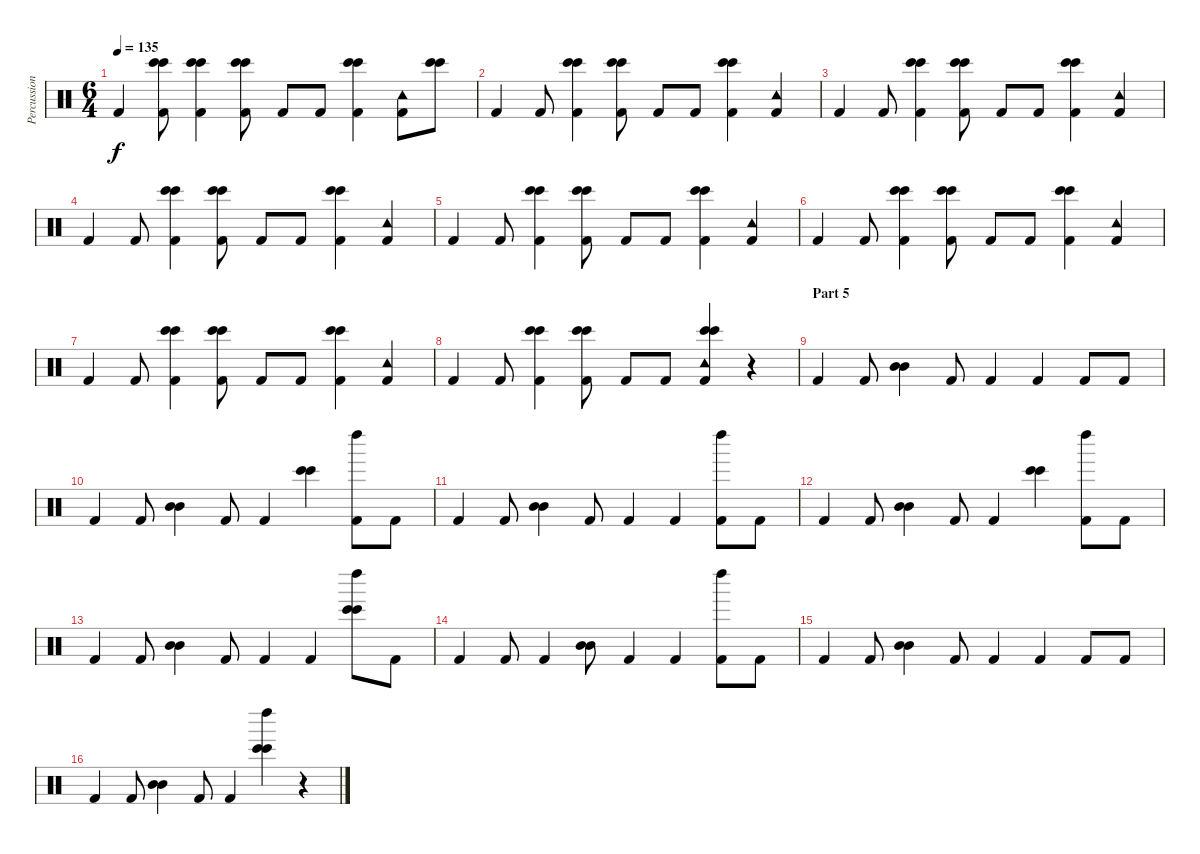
\track ("Percussions" "Percussion") {instrument percussion}
\staff {score}
\articulation defaults
\ts (6 4)
\tempo 135
\clef neutral
\ks c "Kick (hit) 2".4{dy f}
("Kick (hit) 2" "Bongo High (hit)" "Bongo High (hit)").8 ("Kick (hit) 2" "Bongo High (hit)" "Bongo High (hit)").4 ("Kick (hit) 2" "Bongo High (hit)" "Bongo High (hit)").8 "Kick (hit) 2".8 "Kick (hit) 2".8 ("Kick (hit) 2" "Bongo High (hit)" "Bongo High (hit)").4 ("Kick (hit) 2" "Tambourine (hit)").8 ("Bongo High (hit)" "Bongo High (hit)").8 |
"Kick (hit) 2".4 "Kick (hit) 2".8 ("Kick (hit) 2" "Bongo High (hit)" "Bongo High (hit)").4 ("Kick (hit) 2" "Bongo High (hit)" "Bongo High (hit)").8 "Kick (hit) 2".8 "Kick (hit) 2".8 ("Kick (hit) 2" "Bongo High (hit)" "Bongo High (hit)").4 ("Kick (hit) 2" "Tambourine (hit)").4 |
"Kick (hit) 2".4 "Kick (hit) 2".8 ("Kick (hit) 2" "Bongo High (hit)" "Bongo High (hit)").4 ("Kick (hit) 2" "Bongo High (hit)" "Bongo High (hit)").8 "Kick (hit) 2".8 "Kick (hit) 2".8 ("Kick (hit) 2" "Bongo High (hit)" "Bongo High (hit)").4 ("Kick (hit) 2" "Tambourine (hit)").4 |
"Kick (hit) 2".4 "Kick (hit) 2".8 ("Kick (hit) 2" "Bongo High (hit)" "Bongo High (hit)").4 ("Kick (hit) 2" "Bongo High (hit)" "Bongo High (hit)").8 "Kick (hit) 2".8 "Kick (hit) 2".8 ("Kick (hit) 2" "Bongo High (hit)" "Bongo High (hit)").4 ("Kick (hit) 2" "Tambourine (hit)").4 |
"Kick (hit) 2".4 "Kick (hit) 2".8 ("Kick (hit) 2" "Bongo High (hit)" "Bongo High (hit)").4 ("Kick (hit) 2" "Bongo High (hit)" "Bongo High (hit)").8 "Kick (hit) 2".8 "Kick (hit) 2".8 ("Kick (hit) 2" "Bongo High (hit)" "Bongo High (hit)").4 ("Kick (hit) 2" "Tambourine (hit)").4 |
"Kick (hit) 2".4 "Kick (hit) 2".8 ("Kick (hit) 2" "Bongo High (hit)" "Bongo High (hit)").4 ("Kick (hit) 2" "Bongo High (hit)" "Bongo High (hit)").8 "Kick (hit) 2".8 "Kick (hit) 2".8 ("Kick (hit) 2" "Bongo High (hit)" "Bongo High (hit)").4 ("Kick (hit) 2" "Tambourine (hit)").4 |
"Kick (hit) 2".4 "Kick (hit) 2".8 ("Kick (hit) 2" "Bongo High (hit)" "Bongo High (hit)").4 ("Kick (hit) 2" "Bongo High (hit)" "Bongo High (hit)").8 "Kick (hit) 2".8 "Kick (hit) 2".8 ("Kick (hit) 2" "Bongo High (hit)" "Bongo High (hit)").4 ("Kick (hit) 2" "Tambourine (hit)").4 |
"Kick (hit) 2".4 "Kick (hit) 2".8 ("Kick (hit) 2" "Bongo High (hit)" "Bongo High (hit)").4 ("Kick (hit) 2" "Bongo High (hit)" "Bongo High (hit)").8 "Kick (hit) 2".8 "Kick (hit) 2".8 ("Kick (hit) 2" "Bongo High (hit)" "Bongo High (hit)" "Tambourine (hit)").4 r.4 |
\section ("" "Part 5")
"Kick (hit) 2".4 "Kick (hit) 2".8 ("Mid Tom (hit)" "Mid Tom (hit)").4 "Kick (hit) 2".8 "Kick (hit) 2".4 "Kick (hit) 2".4 "Kick (hit) 2".8 "Kick (hit) 2".8 |
"Kick (hit) 2".4 "Kick (hit) 2".8 ("Mid Tom (hit)" "Mid Tom (hit)").4 "Kick (hit) 2".8 "Kick (hit) 2".4 ("Bongo High (hit)" "Bongo High (hit)").4 ("Kick (hit) 2" "Left Maraca (hit)").8 "Kick (hit) 2".8 |
"Kick (hit) 2".4 "Kick (hit) 2".8 ("Mid Tom (hit)" "Mid Tom (hit)").4 "Kick (hit) 2".8 "Kick (hit) 2".4 "Kick (hit) 2".4 ("Kick (hit) 2" "Left Maraca (hit)").8 "Kick (hit) 2".8 |
"Kick (hit) 2".4 "Kick (hit) 2".8 ("Mid Tom (hit)" "Mid Tom (hit)").4 "Kick (hit) 2".8 "Kick (hit) 2".4 ("Bongo High (hit)" "Bongo High (hit)").4 ("Kick (hit) 2" "Left Maraca (hit)").8 "Kick (hit) 2".8 |
"Kick (hit) 2".4 "Kick (hit) 2".8 ("Mid Tom (hit)" "Mid Tom (hit)").4 "Kick (hit) 2".8 "Kick (hit) 2".4 "Kick (hit) 2".4 ("Bongo High (hit)" "Bongo High (hit)" "Left Maraca (hit)").8 "Kick (hit) 2".8 |
"Kick (hit) 2".4 "Kick (hit) 2".8 "Kick (hit) 2".4 ("Mid Tom (hit)" "Mid Tom (hit)").8 "Kick (hit) 2".4 "Kick (hit) 2".4 ("Kick (hit) 2" "Left Maraca (hit)").8 "Kick (hit) 2".8 |
"Kick (hit) 2".4 "Kick (hit) 2".8 ("Mid Tom (hit)" "Mid Tom (hit)").4 "Kick (hit) 2".8 "Kick (hit) 2".4 "Kick (hit) 2".4 "Kick (hit) 2".8 "Kick (hit) 2".8 |
"Kick (hit) 2".4 "Kick (hit) 2".8 ("Mid Tom (hit)" "Mid Tom (hit)").4 "Kick (hit) 2".8 "Kick (hit) 2".4 ("Bongo High (hit)" "Bongo High (hit)" "Left Maraca (hit)").4 r.4
